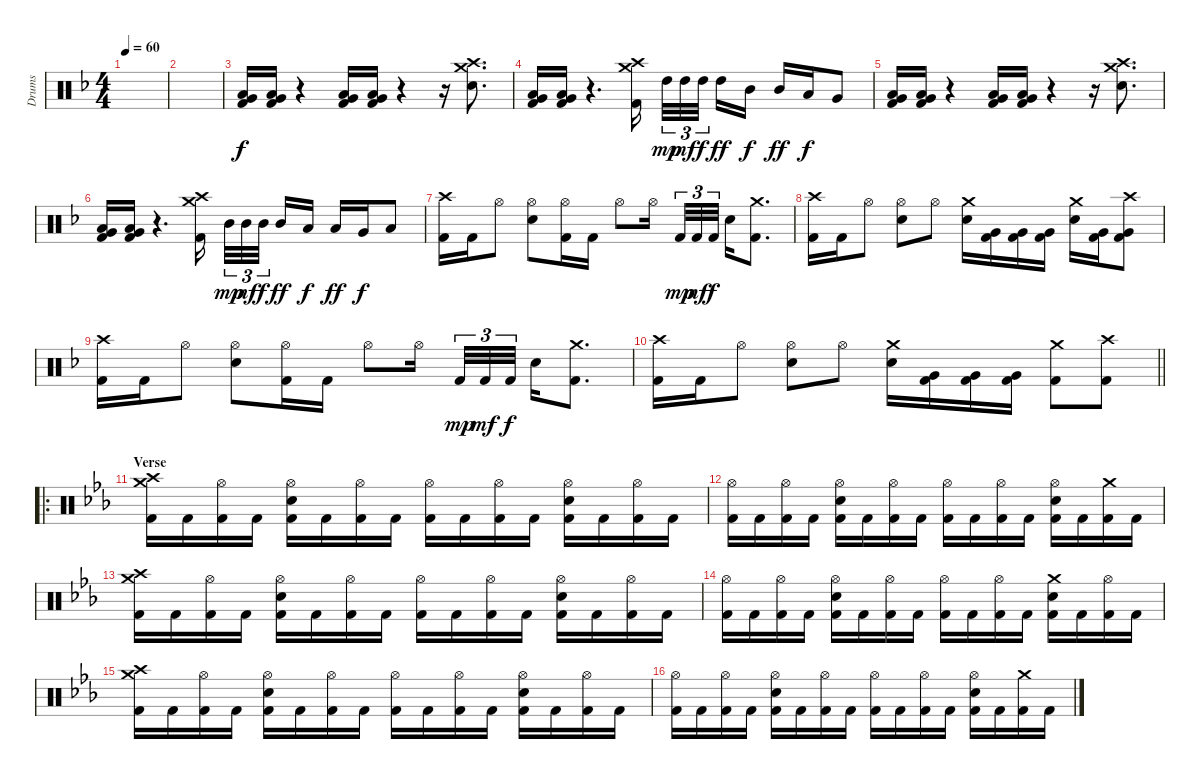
\track ("Drums" "Drums") {instrument percussion}
\staff {score}
\articulation defaults
\ts (4 4)
\tempo 60
\clef neutral
\ks dminor
|
|
("Low Floor Tom (hit)" "Very Low Tom (hit)" "Kick (hit) 2").16 ("Low Floor Tom (hit)" "Very Low Tom (hit)" "Kick (hit) 2").16 r.4 ("Low Floor Tom (hit)" "Very Low Tom (hit)" "Kick (hit) 2").16 ("Low Floor Tom (hit)" "Very Low Tom (hit)" "Kick (hit) 2").16 r.4 r.16 ("Crash high (hit)" "Crash medium (hit)" "Snare (hit) 2").8{d} |
("Low Floor Tom (hit)" "Very Low Tom (hit)" "Kick (hit) 2").16 ("Low Floor Tom (hit)" "Very Low Tom (hit)" "Kick (hit) 2").16 r.4{d} ("Crash high (hit)" "Crash medium (hit)" "Kick (hit) 2").16{beam splitsecondary} "High Tom (hit)".32{tu (3 2) dy mp} "High Tom (hit)".32{tu (3 2) dy mf} "High Tom (hit)".32{tu (3 2) dy f beam splitsecondary} "High Tom (hit)".16{dy ff} "Mid Tom (hit)".16{dy f} "Mid Tom (hit)".16{dy ff} "Low Tom (hit)".16{dy f} "Very Low Tom (hit)".8 |
("Low Floor Tom (hit)" "Very Low Tom (hit)" "Kick (hit) 2").16 ("Low Floor Tom (hit)" "Very Low Tom (hit)" "Kick (hit) 2").16 r.4 ("Low Floor Tom (hit)" "Very Low Tom (hit)" "Kick (hit) 2").16 ("Low Floor Tom (hit)" "Very Low Tom (hit)" "Kick (hit) 2").16 r.4 r.16 ("Crash high (hit)" "Crash medium (hit)" "Snare (hit) 2").8{d} |
("Low Floor Tom (hit)" "Very Low Tom (hit)" "Kick (hit) 2").16 ("Low Floor Tom (hit)" "Very Low Tom (hit)" "Kick (hit) 2").16 r.4{d} ("Crash high (hit)" "Crash medium (hit)" "Kick (hit) 2").16{beam splitsecondary} "Mid Tom (hit)".32{tu (3 2) dy mp} "Mid Tom (hit)".32{tu (3 2) dy mf} "Mid Tom (hit)".32{tu (3 2) dy f beam splitsecondary} "Mid Tom (hit)".16{dy ff} "Low Tom (hit)".16{dy f} "Low Tom (hit)".16{dy ff} "Very Low Tom (hit)".16{dy f} "Low Floor Tom (hit)".8 |
("Crash high (hit)" "Kick (hit) 2").16 "Kick (hit) 2".16 "Hi-Hat (open)".8 ("Hi-Hat (open)" "Snare (hit) 2").8 ("Hi-Hat (open)" "Kick (hit) 2").16 "Kick (hit) 2".16 "Hi-Hat (open)".8 "Hi-Hat (open)".16{beam splitsecondary} "Kick (hit) 2".32{tu (3 2) dy mp} "Kick (hit) 2".32{tu (3 2) dy mf} "Kick (hit) 2".32{tu (3 2) dy f} "Snare (hit) 2".16 ("Crash medium (hit)" "Kick (hit) 2").8{d} |
("Crash high (hit)" "Kick (hit) 2").16 "Kick (hit) 2".16 "Hi-Hat (open)".8 ("Hi-Hat (open)" "Snare (hit) 2").8 "Hi-Hat (open)".8 ("Crash medium (hit)" "Snare (hit) 2").16 ("Very Low Tom (hit)" "Kick (hit) 2").16 ("Very Low Tom (hit)" "Kick (hit) 2").16 ("Very Low Tom (hit)" "Kick (hit) 2").16 ("Crash medium (hit)" "Snare (hit) 2").16 ("Very Low Tom (hit)" "Kick (hit) 2").16 ("Crash high (hit)" "Very Low Tom (hit)" "Kick (hit) 2").8 |
("Crash high (hit)" "Kick (hit) 2").16 "Kick (hit) 2".16 "Hi-Hat (open)".8 ("Hi-Hat (open)" "Snare (hit) 2").8 ("Hi-Hat (open)" "Kick (hit) 2").16 "Kick (hit) 2".16 "Hi-Hat (open)".8 "Hi-Hat (open)".16{beam splitsecondary} "Kick (hit) 2".32{tu (3 2) dy mp} "Kick (hit) 2".32{tu (3 2) dy mf} "Kick (hit) 2".32{tu (3 2) dy f} "Snare (hit) 2".16 ("Crash medium (hit)" "Kick (hit) 2").8{d} |
\barLineRight lightlight
("Crash high (hit)" "Kick (hit) 2").16 "Kick (hit) 2".16 "Hi-Hat (open)".8 ("Hi-Hat (open)" "Snare (hit) 2").8 "Hi-Hat (open)".8 ("Crash medium (hit)" "Snare (hit) 2").16 ("Very Low Tom (hit)" "Kick (hit) 2").16 ("Very Low Tom (hit)" "Kick (hit) 2").16 ("Very Low Tom (hit)" "Kick (hit) 2").16 ("Crash medium (hit)" "Kick (hit) 2").8 ("Crash high (hit)" "Kick (hit) 2").8 |
\ro
\section ("" "Verse")
\ks cminor
("Crash high (hit)" "Crash medium (hit)" "Kick (hit) 2").16 "Kick (hit) 2".16 ("Hi-Hat (open)" "Kick (hit) 2").16 "Kick (hit) 2".16 ("Hi-Hat (open)" "Snare (hit) 2" "Kick (hit) 2").16 "Kick (hit) 2".16 ("Hi-Hat (open)" "Kick (hit) 2").16 "Kick (hit) 2".16 ("Hi-Hat (open)" "Kick (hit) 2").16 "Kick (hit) 2".16 ("Hi-Hat (open)" "Kick (hit) 2").16 "Kick (hit) 2".16 ("Hi-Hat (open)" "Snare (hit) 2" "Kick (hit) 2").16 "Kick (hit) 2".16 ("Hi-Hat (open)" "Kick (hit) 2").16 "Kick (hit) 2".16 |
("Hi-Hat (open)" "Kick (hit) 2").16 "Kick (hit) 2".16 ("Hi-Hat (open)" "Kick (hit) 2").16 "Kick (hit) 2".16 ("Hi-Hat (open)" "Snare (hit) 2" "Kick (hit) 2").16 "Kick (hit) 2".16 ("Hi-Hat (open)" "Kick (hit) 2").16 "Kick (hit) 2".16 ("Hi-Hat (open)" "Kick (hit) 2").16 "Kick (hit) 2".16 ("Hi-Hat (open)" "Kick (hit) 2").16 "Kick (hit) 2".16 ("Hi-Hat (open)" "Snare (hit) 2" "Kick (hit) 2").16 "Kick (hit) 2".16 ("Crash medium (hit)" "Kick (hit) 2").16 "Kick (hit) 2".16 |
("Crash high (hit)" "Crash medium (hit)" "Kick (hit) 2").16 "Kick (hit) 2".16 ("Hi-Hat (open)" "Kick (hit) 2").16 "Kick (hit) 2".16 ("Hi-Hat (open)" "Snare (hit) 2" "Kick (hit) 2").16 "Kick (hit) 2".16 ("Hi-Hat (open)" "Kick (hit) 2").16 "Kick (hit) 2".16 ("Hi-Hat (open)" "Kick (hit) 2").16 "Kick (hit) 2".16 ("Hi-Hat (open)" "Kick (hit) 2").16 "Kick (hit) 2".16 ("Hi-Hat (open)" "Snare (hit) 2" "Kick (hit) 2").16 "Kick (hit) 2".16 ("Hi-Hat (open)" "Kick (hit) 2").16 "Kick (hit) 2".16 |
("Hi-Hat (open)" "Kick (hit) 2").16 "Kick (hit) 2".16 ("Hi-Hat (open)" "Kick (hit) 2").16 "Kick (hit) 2".16 ("Hi-Hat (open)" "Snare (hit) 2" "Kick (hit) 2").16 "Kick (hit) 2".16 ("Hi-Hat (open)" "Kick (hit) 2").16 "Kick (hit) 2".16 ("Hi-Hat (open)" "Kick (hit) 2").16 "Kick (hit) 2".16 ("Hi-Hat (open)" "Kick (hit) 2").16 "Kick (hit) 2".16 ("Crash medium (hit)" "Snare (hit) 2" "Kick (hit) 2").16 "Kick (hit) 2".16 ("Hi-Hat (open)" "Kick (hit) 2").16 "Kick (hit) 2".16 |
("Crash high (hit)" "Crash medium (hit)" "Kick (hit) 2").16 "Kick (hit) 2".16 ("Hi-Hat (open)" "Kick (hit) 2").16 "Kick (hit) 2".16 ("Hi-Hat (open)" "Snare (hit) 2" "Kick (hit) 2").16 "Kick (hit) 2".16 ("Hi-Hat (open)" "Kick (hit) 2").16 "Kick (hit) 2".16 ("Hi-Hat (open)" "Kick (hit) 2").16 "Kick (hit) 2".16 ("Hi-Hat (open)" "Kick (hit) 2").16 "Kick (hit) 2".16 ("Hi-Hat (open)" "Snare (hit) 2" "Kick (hit) 2").16 "Kick (hit) 2".16 ("Hi-Hat (open)" "Kick (hit) 2").16 "Kick (hit) 2".16 |
("Hi-Hat (open)" "Kick (hit) 2").16 "Kick (hit) 2".16 ("Hi-Hat (open)" "Kick (hit) 2").16 "Kick (hit) 2".16 ("Hi-Hat (open)" "Snare (hit) 2" "Kick (hit) 2").16 "Kick (hit) 2".16 ("Hi-Hat (open)" "Kick (hit) 2").16 "Kick (hit) 2".16 ("Hi-Hat (open)" "Kick (hit) 2").16 "Kick (hit) 2".16 ("Hi-Hat (open)" "Kick (hit) 2").16 "Kick (hit) 2".16 ("Hi-Hat (open)" "Snare (hit) 2" "Kick (hit) 2").16 "Kick (hit) 2".16 ("Crash medium (hit)" "Kick (hit) 2").16 "Kick (hit) 2".16
